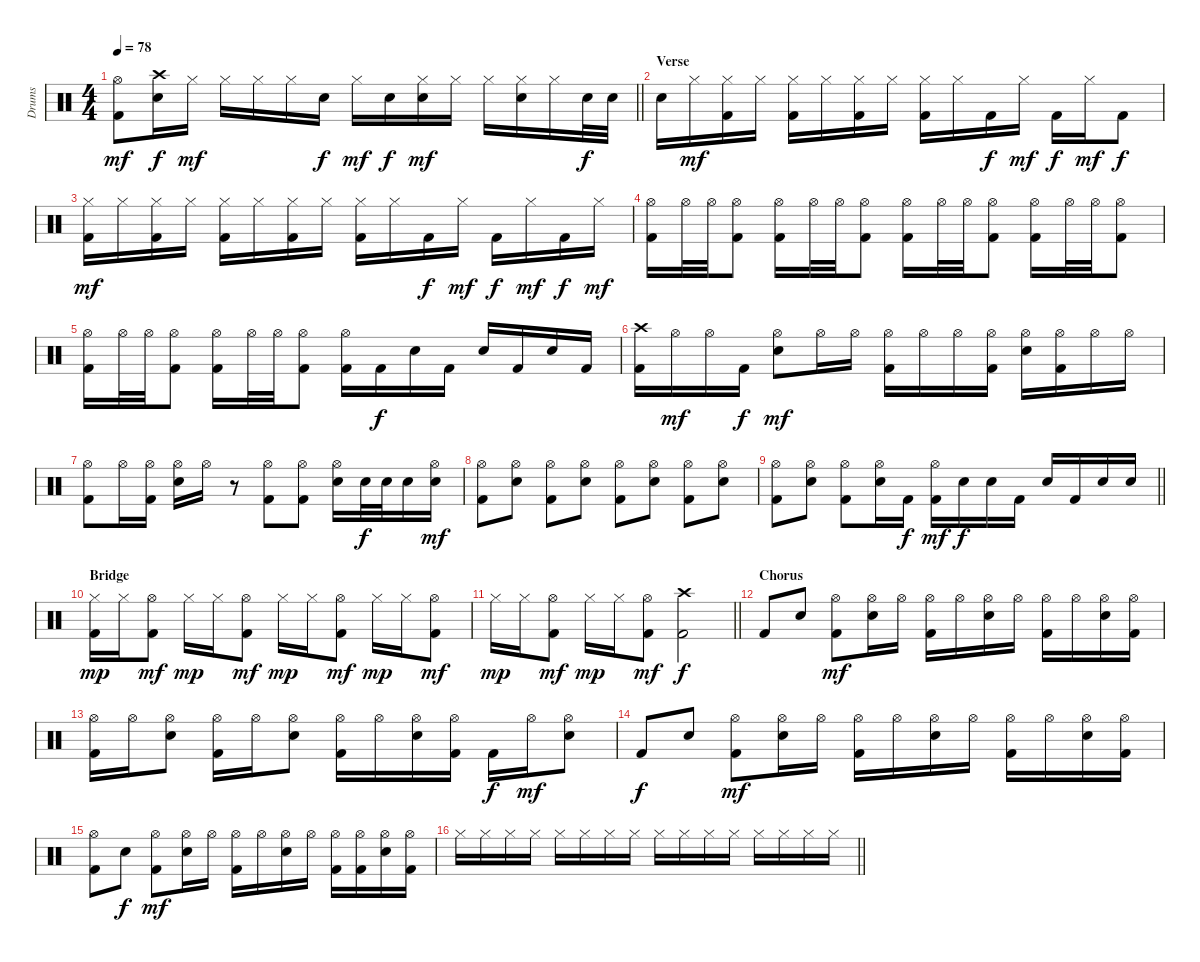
\track ("Drums" "Drums") {instrument percussion}
\staff {score}
\articulation defaults
\ts (4 4)
\tempo 78
\clef neutral
\barLineRight lightlight
\ks c
("Hi-Hat (open)" "Kick (hit) 2").8{dy mf} ("Crash high (hit)" "Electric Snare (hit)").16{dy f} "Hi-Hat (closed)".16{dy mf} "Hi-Hat (closed)".16 "Hi-Hat (closed)".16 "Hi-Hat (closed)".16 "Electric Snare (hit)".16{dy f} "Hi-Hat (closed)".16{dy mf} "Electric Snare (hit)".16{dy f} ("Hi-Hat (closed)" "Electric Snare (hit)").16{dy mf} "Hi-Hat (closed)".16 "Hi-Hat (closed)".16 ("Hi-Hat (closed)" "Electric Snare (hit)").16 "Hi-Hat (closed)".16 "Electric Snare (hit)".32{dy f} "Electric Snare (hit)".32 |
\section ("" "Verse")
"Electric Snare (hit)".16 "Hi-Hat (closed)".16{dy mf} ("Hi-Hat (closed)" "Kick (hit) 2").16 "Hi-Hat (closed)".16 ("Hi-Hat (closed)" "Kick (hit) 2").16 "Hi-Hat (closed)".16 ("Hi-Hat (closed)" "Kick (hit) 2").16 "Hi-Hat (closed)".16 ("Hi-Hat (closed)" "Kick (hit) 2").16 "Hi-Hat (closed)".16 "Kick (hit) 2".16{dy f} "Hi-Hat (closed)".16{dy mf} "Kick (hit) 2".16{dy f} "Hi-Hat (closed)".16{dy mf} "Kick (hit) 2".8{dy f} |
("Hi-Hat (closed)" "Kick (hit) 2").16{dy mf} "Hi-Hat (closed)".16 ("Hi-Hat (closed)" "Kick (hit) 2").16 "Hi-Hat (closed)".16 ("Hi-Hat (closed)" "Kick (hit) 2").16 "Hi-Hat (closed)".16 ("Hi-Hat (closed)" "Kick (hit) 2").16 "Hi-Hat (closed)".16 ("Hi-Hat (closed)" "Kick (hit) 2").16 "Hi-Hat (closed)".16 "Kick (hit) 2".16{dy f} "Hi-Hat (closed)".16{dy mf} "Kick (hit) 2".16{dy f} "Hi-Hat (closed)".16{dy mf} "Kick (hit) 2".16{dy f} "Hi-Hat (closed)".16{dy mf} |
("Hi-Hat (open)" "Kick (hit) 2").16 "Hi-Hat (open)".32 "Hi-Hat (open)".32 ("Hi-Hat (open)" "Kick (hit) 2").8 ("Hi-Hat (open)" "Kick (hit) 2").16 "Hi-Hat (open)".32 "Hi-Hat (open)".32 ("Hi-Hat (open)" "Kick (hit) 2").8 ("Hi-Hat (open)" "Kick (hit) 2").16 "Hi-Hat (open)".32 "Hi-Hat (open)".32 ("Hi-Hat (open)" "Kick (hit) 2").8 ("Hi-Hat (open)" "Kick (hit) 2").16 "Hi-Hat (open)".32 "Hi-Hat (open)".32 ("Hi-Hat (open)" "Kick (hit) 2").8 |
("Hi-Hat (open)" "Kick (hit) 2").16 "Hi-Hat (open)".32 "Hi-Hat (open)".32 ("Hi-Hat (open)" "Kick (hit) 2").8 ("Hi-Hat (open)" "Kick (hit) 2").16 "Hi-Hat (open)".32 "Hi-Hat (open)".32 ("Hi-Hat (open)" "Kick (hit) 2").8 ("Hi-Hat (open)" "Kick (hit) 2").16 "Kick (hit) 2".16{dy f} "Electric Snare (hit)".16 "Kick (hit) 2".16 "Electric Snare (hit)".16 "Kick (hit) 2".16 "Electric Snare (hit)".16 "Kick (hit) 2".16 |
("Crash high (hit)" "Kick (hit) 2").16 "Hi-Hat (open)".16{dy mf} "Hi-Hat (open)".16 "Kick (hit) 2".16{dy f} ("Hi-Hat (open)" "Electric Snare (hit)").8{dy mf} "Hi-Hat (open)".16 "Hi-Hat (open)".16 ("Hi-Hat (open)" "Kick (hit) 2").16 "Hi-Hat (open)".16 "Hi-Hat (open)".16 ("Hi-Hat (open)" "Kick (hit) 2").16 ("Hi-Hat (open)" "Electric Snare (hit)").16 ("Hi-Hat (open)" "Kick (hit) 2").16 "Hi-Hat (open)".16 "Hi-Hat (open)".16 |
("Hi-Hat (open)" "Kick (hit) 2").8 "Hi-Hat (open)".16 ("Hi-Hat (open)" "Kick (hit) 2").16 ("Hi-Hat (open)" "Electric Snare (hit)").16 "Hi-Hat (open)".16 r.8 ("Hi-Hat (open)" "Kick (hit) 2").8 ("Hi-Hat (open)" "Kick (hit) 2").8 ("Hi-Hat (open)" "Electric Snare (hit)").16 "Electric Snare (hit)".32{dy f} "Electric Snare (hit)".32 "Electric Snare (hit)".16 ("Hi-Hat (open)" "Electric Snare (hit)").16{dy mf} |
("Hi-Hat (open)" "Kick (hit) 2").8 ("Hi-Hat (open)" "Electric Snare (hit)").8 ("Hi-Hat (open)" "Kick (hit) 2").8 ("Hi-Hat (open)" "Electric Snare (hit)").8 ("Hi-Hat (open)" "Kick (hit) 2").8 ("Hi-Hat (open)" "Electric Snare (hit)").8 ("Hi-Hat (open)" "Kick (hit) 2").8 ("Hi-Hat (open)" "Electric Snare (hit)").8 |
\barLineRight lightlight
("Hi-Hat (open)" "Kick (hit) 2").8 ("Hi-Hat (open)" "Electric Snare (hit)").8 ("Hi-Hat (open)" "Kick (hit) 2").8 ("Hi-Hat (open)" "Electric Snare (hit)").16 "Kick (hit) 2".16{dy f} ("Hi-Hat (open)" "Kick (hit) 2").16{dy mf} "Electric Snare (hit)".16{dy f} "Electric Snare (hit)".16 "Kick (hit) 2".16 "Electric Snare (hit)".16 "Kick (hit) 2".16 "Electric Snare (hit)".16 "Electric Snare (hit)".16 |
\section ("" "Bridge")
("Hi-Hat (closed)" "Kick (hit) 2").16{dy mp} "Hi-Hat (closed)".16 ("Hi-Hat (open)" "Kick (hit) 2").8{dy mf} "Hi-Hat (closed)".16{dy mp} "Hi-Hat (closed)".16 ("Hi-Hat (open)" "Kick (hit) 2").8{dy mf} "Hi-Hat (closed)".16{dy mp} "Hi-Hat (closed)".16 ("Hi-Hat (open)" "Kick (hit) 2").8{dy mf} "Hi-Hat (closed)".16{dy mp} "Hi-Hat (closed)".16 ("Hi-Hat (open)" "Kick (hit) 2").8{dy mf} |
\barLineRight lightlight "Hi-Hat (closed)".16{dy mp} "Hi-Hat (closed)".16
("Hi-Hat (open)" "Kick (hit) 2").8{dy mf} "Hi-Hat (closed)".16{dy mp} "Hi-Hat (closed)".16 ("Hi-Hat (open)" "Kick (hit) 2").8{dy mf} ("Crash high (hit)" "Kick (hit) 2").2{dy f} |
\section ("" "Chorus")
"Kick (hit) 2".8 "Electric Snare (hit)".8 ("Hi-Hat (open)" "Kick (hit) 2").8{dy mf} ("Hi-Hat (open)" "Electric Snare (hit)").16 "Hi-Hat (open)".16 ("Hi-Hat (open)" "Kick (hit) 2").16 "Hi-Hat (open)".16 ("Hi-Hat (open)" "Electric Snare (hit)").16 "Hi-Hat (open)".16 ("Hi-Hat (open)" "Kick (hit) 2").16 "Hi-Hat (open)".16 ("Hi-Hat (open)" "Electric Snare (hit)").16 ("Hi-Hat (open)" "Kick (hit) 2").16 |
("Hi-Hat (open)" "Kick (hit) 2").16 "Hi-Hat (open)".16 ("Hi-Hat (open)" "Electric Snare (hit)").8 ("Hi-Hat (open)" "Kick (hit) 2").16 "Hi-Hat (open)".16 ("Hi-Hat (open)" "Electric Snare (hit)").8 ("Hi-Hat (open)" "Kick (hit) 2").16 "Hi-Hat (open)".16 ("Hi-Hat (open)" "Electric Snare (hit)").16 ("Hi-Hat (open)" "Kick (hit) 2").16 "Kick (hit) 2".16{dy f} "Hi-Hat (open)".16{dy mf} ("Hi-Hat (open)" "Electric Snare (hit)").8 |
"Kick (hit) 2".8{dy f} "Electric Snare (hit)".8 ("Hi-Hat (open)" "Kick (hit) 2").8{dy mf} ("Hi-Hat (open)" "Electric Snare (hit)").16 "Hi-Hat (open)".16 ("Hi-Hat (open)" "Kick (hit) 2").16 "Hi-Hat (open)".16 ("Hi-Hat (open)" "Electric Snare (hit)").16 "Hi-Hat (open)".16 ("Hi-Hat (open)" "Kick (hit) 2").16 "Hi-Hat (open)".16 ("Hi-Hat (open)" "Electric Snare (hit)").16 ("Hi-Hat (open)" "Kick (hit) 2").16 |
("Hi-Hat (open)" "Kick (hit) 2").8 "Electric Snare (hit)".8{dy f} ("Hi-Hat (open)" "Kick (hit) 2").8{dy mf} ("Hi-Hat (open)" "Electric Snare (hit)").16 "Hi-Hat (open)".16 ("Hi-Hat (open)" "Kick (hit) 2").16 "Hi-Hat (open)".16 ("Hi-Hat (open)" "Electric Snare (hit)").16 "Hi-Hat (open)".16 ("Hi-Hat (open)" "Kick (hit) 2").16 ("Hi-Hat (open)" "Kick (hit) 2").16 ("Hi-Hat (open)" "Electric Snare (hit)").16 ("Hi-Hat (open)" "Kick (hit) 2").16 |
\barLineRight lightlight "Hi-Hat (closed)".16 "Hi-Hat (closed)".16 "Hi-Hat (closed)".16 "Hi-Hat (closed)".16 "Hi-Hat (closed)".16 "Hi-Hat (closed)".16 "Hi-Hat (closed)".16 "Hi-Hat (closed)".16 "Hi-Hat (closed)".16 "Hi-Hat (closed)".16 "Hi-Hat (closed)".16 "Hi-Hat (closed)".16 "Hi-Hat (closed)".16 "Hi-Hat (closed)".16 "Hi-Hat (closed)".16 "Hi-Hat (closed)".16
